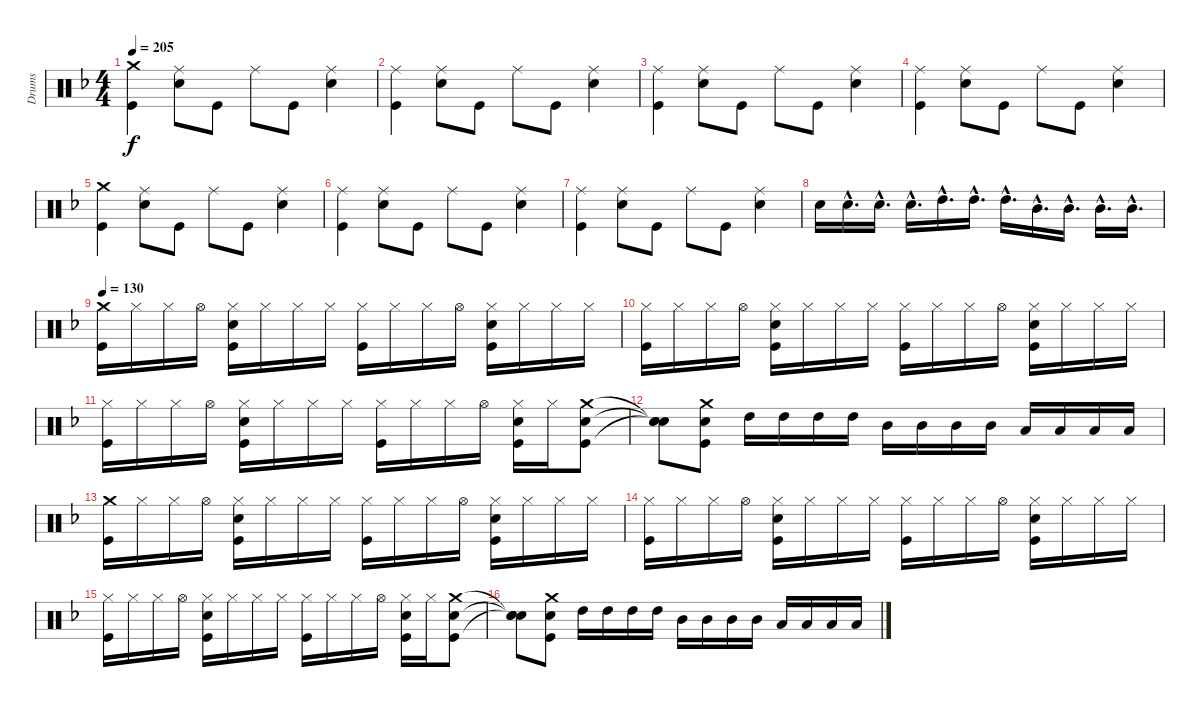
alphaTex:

\track ("Drums" "Drums") {instrument percussion}
\staff {score}
\articulation defaults
\ts (4 4)
\tempo 205
\clef neutral
\ks f
("Crash medium (hit)" "Kick (hit)").4{dy f} ("Ride (middle)" "Electric Snare (hit)").8 "Kick (hit)".8 "Ride (middle)".8 "Kick (hit)".8 ("Ride (middle)" "Electric Snare (hit)").4 |
("Ride (middle)" "Kick (hit)").4 ("Ride (middle)" "Electric Snare (hit)").8 "Kick (hit)".8 "Ride (middle)".8 "Kick (hit)".8 ("Ride (middle)" "Electric Snare (hit)").4 |
("Ride (middle)" "Kick (hit)").4 ("Ride (middle)" "Electric Snare (hit)").8 "Kick (hit)".8 "Ride (middle)".8 "Kick (hit)".8 ("Ride (middle)" "Electric Snare (hit)").4 |
("Ride (middle)" "Kick (hit)").4 ("Ride (middle)" "Electric Snare (hit)").8 "Kick (hit)".8 "Ride (middle)".8 "Kick (hit)".8 ("Ride (middle)" "Electric Snare (hit)").4 |
("Crash medium (hit)" "Kick (hit)").4 ("Ride (middle)" "Electric Snare (hit)").8 "Kick (hit)".8 "Ride (middle)".8 "Kick (hit)".8 ("Ride (middle)" "Electric Snare (hit)").4 |
("Ride (middle)" "Kick (hit)").4 ("Ride (middle)" "Electric Snare (hit)").8 "Kick (hit)".8 "Ride (middle)".8 "Kick (hit)".8 ("Ride (middle)" "Electric Snare (hit)").4 |
("Ride (middle)" "Kick (hit)").4 ("Ride (middle)" "Electric Snare (hit)").8 "Kick (hit)".8 "Ride (middle)".8 "Kick (hit)".8 ("Ride (middle)" "Electric Snare (hit)").4 |
"Electric Snare (hit)".16 "Electric Snare (hit)"{hac}.16{d} "Electric Snare (hit)"{hac}.16{d} "Electric Snare (hit)"{hac}.16{d} "High Tom (hit)"{hac}.16{d} "High Tom (hit)"{hac}.16{d} "High Tom (hit)"{hac}.16{d} "Mid Tom (hit)"{hac}.16{d} "Mid Tom (hit)"{hac}.16{d} "Mid Tom (hit)"{hac}.16{d} "Mid Tom (hit)"{hac}.16{d} |
\tempo 130
("Crash medium (hit)" "Kick (hit)").16 "Hi-Hat (closed)".16 "Hi-Hat (closed)".16 "Hi-Hat (open)".16 ("Hi-Hat (closed)" "Kick (hit)" "Electric Snare (hit)").16 "Hi-Hat (closed)".16 "Hi-Hat (closed)".16 "Hi-Hat (closed)".16 ("Hi-Hat (closed)" "Kick (hit)").16 "Hi-Hat (closed)".16 "Hi-Hat (closed)".16 "Hi-Hat (open)".16 ("Hi-Hat (closed)" "Kick (hit)" "Electric Snare (hit)").16 "Hi-Hat (closed)".16 "Hi-Hat (closed)".16 "Hi-Hat (closed)".16 |
("Hi-Hat (closed)" "Kick (hit)").16 "Hi-Hat (closed)".16 "Hi-Hat (closed)".16 "Hi-Hat (open)".16 ("Hi-Hat (closed)" "Kick (hit)" "Electric Snare (hit)").16 "Hi-Hat (closed)".16 "Hi-Hat (closed)".16 "Hi-Hat (closed)".16 ("Hi-Hat (closed)" "Kick (hit)").16 "Hi-Hat (closed)".16 "Hi-Hat (closed)".16 "Hi-Hat (open)".16 ("Hi-Hat (closed)" "Kick (hit)" "Electric Snare (hit)").16 "Hi-Hat (closed)".16 "Hi-Hat (closed)".16 "Hi-Hat (closed)".16 |
("Hi-Hat (closed)" "Kick (hit)").16 "Hi-Hat (closed)".16 "Hi-Hat (closed)".16 "Hi-Hat (open)".16 ("Hi-Hat (closed)" "Kick (hit)" "Electric Snare (hit)").16 "Hi-Hat (closed)".16 "Hi-Hat (closed)".16 "Hi-Hat (closed)".16 ("Hi-Hat (closed)" "Kick (hit)").16 "Hi-Hat (closed)".16 "Hi-Hat (closed)".16 "Hi-Hat (open)".16 ("Hi-Hat (closed)" "Kick (hit)" "Electric Snare (hit)").16 "Hi-Hat (closed)".16 ("Crash medium (hit)" "Kick (hit)" "Electric Snare (hit)").8 |
("Snare (hit)"{t} "Snare (hit)"{t} "Snare (hit)"{t}).8 ("Crash medium (hit)" "Kick (hit)" "Electric Snare (hit)").8 "High Tom (hit)".16 "High Tom (hit)".16 "High Tom (hit)".16 "High Tom (hit)".16 "Mid Tom (hit)".16 "Mid Tom (hit)".16 "Mid Tom (hit)".16 "Mid Tom (hit)".16 "Low Tom (hit)".16 "Low Tom (hit)".16 "Low Tom (hit)".16 "Low Tom (hit)".16 |
("Crash medium (hit)" "Kick (hit)").16 "Hi-Hat (closed)".16 "Hi-Hat (closed)".16 "Hi-Hat (open)".16 ("Hi-Hat (closed)" "Kick (hit)" "Electric Snare (hit)").16 "Hi-Hat (closed)".16 "Hi-Hat (closed)".16 "Hi-Hat (closed)".16 ("Hi-Hat (closed)" "Kick (hit)").16 "Hi-Hat (closed)".16 "Hi-Hat (closed)".16 "Hi-Hat (open)".16 ("Hi-Hat (closed)" "Kick (hit)" "Electric Snare (hit)").16 "Hi-Hat (closed)".16 "Hi-Hat (closed)".16 "Hi-Hat (closed)".16 |
("Hi-Hat (closed)" "Kick (hit)").16 "Hi-Hat (closed)".16 "Hi-Hat (closed)".16 "Hi-Hat (open)".16 ("Hi-Hat (closed)" "Kick (hit)" "Electric Snare (hit)").16 "Hi-Hat (closed)".16 "Hi-Hat (closed)".16 "Hi-Hat (closed)".16 ("Hi-Hat (closed)" "Kick (hit)").16 "Hi-Hat (closed)".16 "Hi-Hat (closed)".16 "Hi-Hat (open)".16 ("Hi-Hat (closed)" "Kick (hit)" "Electric Snare (hit)").16 "Hi-Hat (closed)".16 "Hi-Hat (closed)".16 "Hi-Hat (closed)".16 |
("Hi-Hat (closed)" "Kick (hit)").16 "Hi-Hat (closed)".16 "Hi-Hat (closed)".16 "Hi-Hat (open)".16 ("Hi-Hat (closed)" "Kick (hit)" "Electric Snare (hit)").16 "Hi-Hat (closed)".16 "Hi-Hat (closed)".16 "Hi-Hat (closed)".16 ("Hi-Hat (closed)" "Kick (hit)").16 "Hi-Hat (closed)".16 "Hi-Hat (closed)".16 "Hi-Hat (open)".16 ("Hi-Hat (closed)" "Kick (hit)" "Electric Snare (hit)").16 "Hi-Hat (closed)".16 ("Crash medium (hit)" "Kick (hit)" "Electric Snare (hit)").8 |
("Snare (hit)"{t} "Snare (hit)"{t} "Snare (hit)"{t}).8 ("Crash medium (hit)" "Kick (hit)" "Electric Snare (hit)").8 "High Tom (hit)".16 "High Tom (hit)".16 "High Tom (hit)".16 "High Tom (hit)".16 "Mid Tom (hit)".16 "Mid Tom (hit)".16 "Mid Tom (hit)".16 "Mid Tom (hit)".16 "Low Tom (hit)".16 "Low Tom (hit)".16 "Low Tom (hit)".16 "Low Tom (hit)".16
